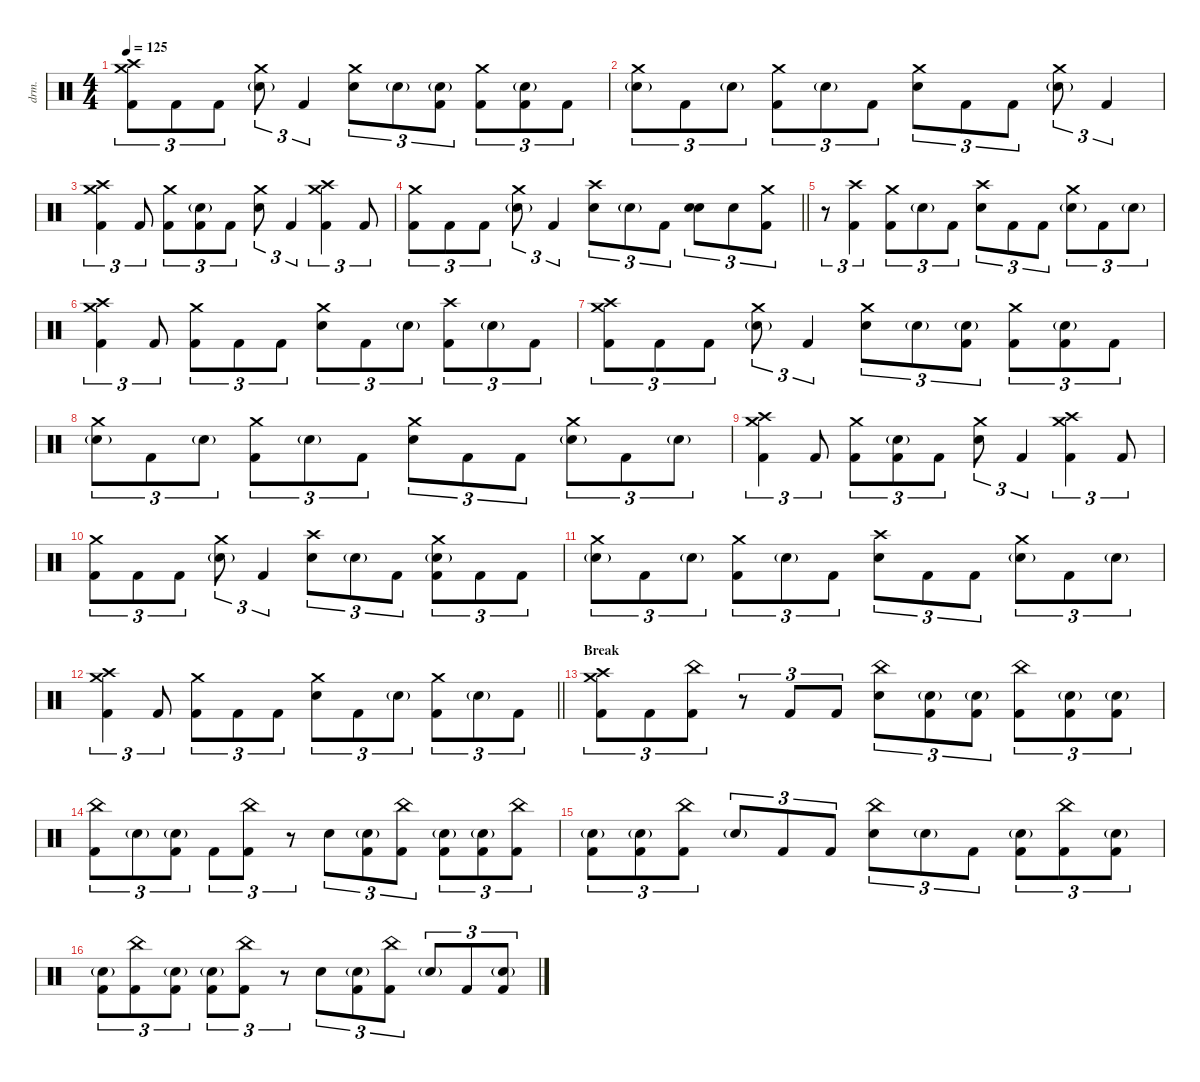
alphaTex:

\defaultSystemsLayout 4
\hideDynamics
\bracketExtendMode nobrackets
\track ("DRUMS (Thomas Haake)" "drm.") {instrument percussion}
\staff {score}
\articulation defaults
\ts (4 4)
\tempo 125
\clef neutral
\ks c
("Crash high (hit)" "Crash medium (hit)" "Kick (hit) 2").8{tu (3 2) dy f} "Kick (hit) 2".8{tu (3 2)} "Kick (hit) 2".8{tu (3 2)} ("Crash medium (hit)" "Snare (hit) 2"{g}).8{tu (3 2)} "Kick (hit) 2".4{tu (3 2)} ("Crash medium (hit)" "Snare (hit) 2").8{tu (3 2)} "Snare (hit) 2"{g}.8{tu (3 2) dy p} ("Snare (hit) 2"{g} "Kick (hit) 2").8{tu (3 2) dy f} ("Crash medium (hit)" "Kick (hit) 2").8{tu (3 2)} ("Snare (hit) 2"{g} "Kick (hit) 2").8{tu (3 2)} "Kick (hit) 2".8{tu (3 2)} |
("Crash medium (hit)" "Snare (hit) 2"{g}).8{tu (3 2)} "Kick (hit) 2".8{tu (3 2)} "Snare (hit) 2"{g}.8{tu (3 2) dy p} ("Crash medium (hit)" "Kick (hit) 2").8{tu (3 2) dy f} "Snare (hit) 2"{g}.8{tu (3 2) dy p} "Kick (hit) 2".8{tu (3 2) dy f} ("Crash medium (hit)" "Snare (hit) 2").8{tu (3 2)} "Kick (hit) 2".8{tu (3 2)} "Kick (hit) 2".8{tu (3 2)} ("Crash medium (hit)" "Snare (hit) 2"{g}).8{tu (3 2)} "Kick (hit) 2".4{tu (3 2)} |
("Crash medium (hit)" "Crash high (hit)" "Kick (hit) 2").4{tu (3 2)} "Kick (hit) 2".8{tu (3 2)} ("Crash medium (hit)" "Kick (hit) 2").8{tu (3 2)} ("Snare (hit) 2"{g} "Kick (hit) 2").8{tu (3 2)} "Kick (hit) 2".8{tu (3 2)} ("Crash medium (hit)" "Snare (hit) 2").8{tu (3 2)} "Kick (hit) 2".4{tu (3 2)} ("Crash medium (hit)" "Crash high (hit)" "Kick (hit) 2").4{tu (3 2)} "Kick (hit) 2".8{tu (3 2)} |
\barLineRight lightlight
("Crash medium (hit)" "Kick (hit) 2").8{tu (3 2)} "Kick (hit) 2".8{tu (3 2)} "Kick (hit) 2".8{tu (3 2)} ("Crash medium (hit)" "Snare (hit) 2"{g}).8{tu (3 2)} "Kick (hit) 2".4{tu (3 2)} ("Crash high (hit)" "Snare (hit) 2").8{tu (3 2)} "Snare (hit) 2"{g}.8{tu (3 2) dy p} "Kick (hit) 2".8{tu (3 2) dy f} ("Snare (hit) 2" "Snare (hit) 2").8{tu (3 2) dy mf} "Snare (hit) 2".8{tu (3 2) dy f} ("Crash medium (hit)" "Kick (hit) 2").8{tu (3 2)} |
r.8{tu (3 2)} ("Crash high (hit)" "Kick (hit) 2").4{tu (3 2)} ("Crash medium (hit)" "Kick (hit) 2").8{tu (3 2)} "Snare (hit) 2"{g}.8{tu (3 2) dy p} "Kick (hit) 2".8{tu (3 2) dy f} ("Crash high (hit)" "Snare (hit) 2").8{tu (3 2)} "Kick (hit) 2".8{tu (3 2)} "Kick (hit) 2".8{tu (3 2)} ("Crash medium (hit)" "Snare (hit) 2"{g}).8{tu (3 2)} "Kick (hit) 2".8{tu (3 2)} "Snare (hit) 2"{g}.8{tu (3 2) dy p} |
("Crash medium (hit)" "Crash high (hit)" "Kick (hit) 2").4{tu (3 2) dy f} "Kick (hit) 2".8{tu (3 2)} ("Crash medium (hit)" "Kick (hit) 2").8{tu (3 2)} "Kick (hit) 2".8{tu (3 2)} "Kick (hit) 2".8{tu (3 2)} ("Crash medium (hit)" "Snare (hit) 2").8{tu (3 2)} "Kick (hit) 2".8{tu (3 2)} "Snare (hit) 2"{g}.8{tu (3 2) dy p} ("Crash high (hit)" "Kick (hit) 2").8{tu (3 2) dy f} "Snare (hit) 2"{g}.8{tu (3 2) dy p} "Kick (hit) 2".8{tu (3 2) dy f} |
("Crash high (hit)" "Crash medium (hit)" "Kick (hit) 2").8{tu (3 2)} "Kick (hit) 2".8{tu (3 2)} "Kick (hit) 2".8{tu (3 2)} ("Crash medium (hit)" "Snare (hit) 2"{g}).8{tu (3 2)} "Kick (hit) 2".4{tu (3 2)} ("Crash medium (hit)" "Snare (hit) 2").8{tu (3 2)} "Snare (hit) 2"{g}.8{tu (3 2) dy p} ("Snare (hit) 2"{g} "Kick (hit) 2").8{tu (3 2) dy f} ("Crash medium (hit)" "Kick (hit) 2").8{tu (3 2)} ("Snare (hit) 2"{g} "Kick (hit) 2").8{tu (3 2)} "Kick (hit) 2".8{tu (3 2)} |
("Crash medium (hit)" "Snare (hit) 2"{g}).8{tu (3 2)} "Kick (hit) 2".8{tu (3 2)} "Snare (hit) 2"{g}.8{tu (3 2) dy p} ("Crash medium (hit)" "Kick (hit) 2").8{tu (3 2) dy f} "Snare (hit) 2"{g}.8{tu (3 2) dy p} "Kick (hit) 2".8{tu (3 2) dy f} ("Crash medium (hit)" "Snare (hit) 2").8{tu (3 2)} "Kick (hit) 2".8{tu (3 2)} "Kick (hit) 2".8{tu (3 2)} ("Crash medium (hit)" "Snare (hit) 2"{g}).8{tu (3 2)} "Kick (hit) 2".8{tu (3 2)} "Snare (hit) 2"{g}.8{tu (3 2) dy p} |
("Crash medium (hit)" "Crash high (hit)" "Kick (hit) 2").4{tu (3 2) dy f} "Kick (hit) 2".8{tu (3 2)} ("Crash medium (hit)" "Kick (hit) 2").8{tu (3 2)} ("Snare (hit) 2"{g} "Kick (hit) 2").8{tu (3 2)} "Kick (hit) 2".8{tu (3 2)} ("Crash medium (hit)" "Snare (hit) 2").8{tu (3 2)} "Kick (hit) 2".4{tu (3 2)} ("Crash medium (hit)" "Crash high (hit)" "Kick (hit) 2").4{tu (3 2)} "Kick (hit) 2".8{tu (3 2)} |
("Crash medium (hit)" "Kick (hit) 2").8{tu (3 2)} "Kick (hit) 2".8{tu (3 2)} "Kick (hit) 2".8{tu (3 2)} ("Crash medium (hit)" "Snare (hit) 2"{g}).8{tu (3 2)} "Kick (hit) 2".4{tu (3 2)} ("Crash high (hit)" "Snare (hit) 2").8{tu (3 2)} "Snare (hit) 2"{g}.8{tu (3 2) dy p} "Kick (hit) 2".8{tu (3 2) dy f} ("Crash medium (hit)" "Snare (hit) 2"{g} "Kick (hit) 2").8{tu (3 2)} "Kick (hit) 2".8{tu (3 2)} "Kick (hit) 2".8{tu (3 2)} |
("Crash medium (hit)" "Snare (hit) 2"{g}).8{tu (3 2)} "Kick (hit) 2".8{tu (3 2)} "Snare (hit) 2"{g}.8{tu (3 2) dy p} ("Crash medium (hit)" "Kick (hit) 2").8{tu (3 2) dy f} "Snare (hit) 2"{g}.8{tu (3 2) dy p} "Kick (hit) 2".8{tu (3 2) dy f} ("Crash high (hit)" "Snare (hit) 2").8{tu (3 2)} "Kick (hit) 2".8{tu (3 2)} "Kick (hit) 2".8{tu (3 2)} ("Crash medium (hit)" "Snare (hit) 2"{g}).8{tu (3 2)} "Kick (hit) 2".8{tu (3 2)} "Snare (hit) 2"{g}.8{tu (3 2) dy p} |
\barLineRight lightlight
("Crash medium (hit)" "Crash high (hit)" "Kick (hit) 2").4{tu (3 2) dy f} "Kick (hit) 2".8{tu (3 2)} ("Crash medium (hit)" "Kick (hit) 2").8{tu (3 2)} "Kick (hit) 2".8{tu (3 2)} "Kick (hit) 2".8{tu (3 2)} ("Crash medium (hit)" "Snare (hit) 2").8{tu (3 2)} "Kick (hit) 2".8{tu (3 2)} "Snare (hit) 2"{g}.8{tu (3 2) dy p} ("Crash medium (hit)" "Kick (hit) 2").8{tu (3 2) dy f} "Snare (hit) 2"{g}.8{tu (3 2) dy p} "Kick (hit) 2".8{tu (3 2) dy f} |
\section ("" "Break")
("Crash medium (hit)" "Crash high (hit)" "Kick (hit) 2").8{tu (3 2)} "Kick (hit) 2".8{tu (3 2)} ("China (hit)" "Kick (hit) 2").8{tu (3 2)} r.8{tu (3 2)} "Kick (hit) 2".8{tu (3 2)} "Kick (hit) 2".8{tu (3 2)} ("China (hit)" "Snare (hit) 2").8{tu (3 2)} ("Snare (hit) 2"{g} "Kick (hit) 2").8{tu (3 2)} ("Snare (hit) 2"{g} "Kick (hit) 2").8{tu (3 2)} ("China (hit)" "Kick (hit) 2").8{tu (3 2)} ("Snare (hit) 2"{g} "Kick (hit) 2").8{tu (3 2)} ("Snare (hit) 2"{g} "Kick (hit) 2").8{tu (3 2)} |
("China (hit)" "Kick (hit) 2").8{tu (3 2)} "Snare (hit) 2"{g}.8{tu (3 2) dy p} ("Snare (hit) 2"{g} "Kick (hit) 2").8{tu (3 2) dy f} "Kick (hit) 2".8{tu (3 2)} ("China (hit)" "Kick (hit) 2").8{tu (3 2)} r.8{tu (3 2)} "Snare (hit) 2".8{tu (3 2)} ("Snare (hit) 2"{g} "Kick (hit) 2").8{tu (3 2)} ("China (hit)" "Kick (hit) 2").8{tu (3 2)} ("Snare (hit) 2"{g} "Kick (hit) 2").8{tu (3 2)} ("Snare (hit) 2"{g} "Kick (hit) 2").8{tu (3 2)} ("China (hit)" "Kick (hit) 2").8{tu (3 2)} |
("Snare (hit) 2"{g} "Kick (hit) 2").8{tu (3 2)} ("Snare (hit) 2"{g} "Kick (hit) 2").8{tu (3 2)} ("China (hit)" "Kick (hit) 2").8{tu (3 2)} "Snare (hit) 2"{g}.8{tu (3 2) dy p} "Kick (hit) 2".8{tu (3 2) dy f} "Kick (hit) 2".8{tu (3 2)} ("China (hit)" "Snare (hit) 2").8{tu (3 2)} "Snare (hit) 2"{g}.8{tu (3 2) dy p} "Kick (hit) 2".8{tu (3 2) dy f} ("Snare (hit) 2"{g} "Kick (hit) 2").8{tu (3 2)} ("China (hit)" "Kick (hit) 2").8{tu (3 2)} ("Snare (hit) 2"{g} "Kick (hit) 2").8{tu (3 2)} |
("Snare (hit) 2"{g} "Kick (hit) 2").8{tu (3 2)} ("China (hit)" "Kick (hit) 2").8{tu (3 2)} ("Snare (hit) 2"{g} "Kick (hit) 2").8{tu (3 2)} ("Snare (hit) 2"{g} "Kick (hit) 2").8{tu (3 2)} ("China (hit)" "Kick (hit) 2").8{tu (3 2)} r.8{tu (3 2)} "Snare (hit) 2".8{tu (3 2)} ("Snare (hit) 2"{g} "Kick (hit) 2").8{tu (3 2)} ("China (hit)" "Kick (hit) 2").8{tu (3 2)} "Snare (hit) 2"{g}.8{tu (3 2) dy p} "Kick (hit) 2".8{tu (3 2) dy f} ("Snare (hit) 2"{g} "Kick (hit) 2").8{tu (3 2)}
